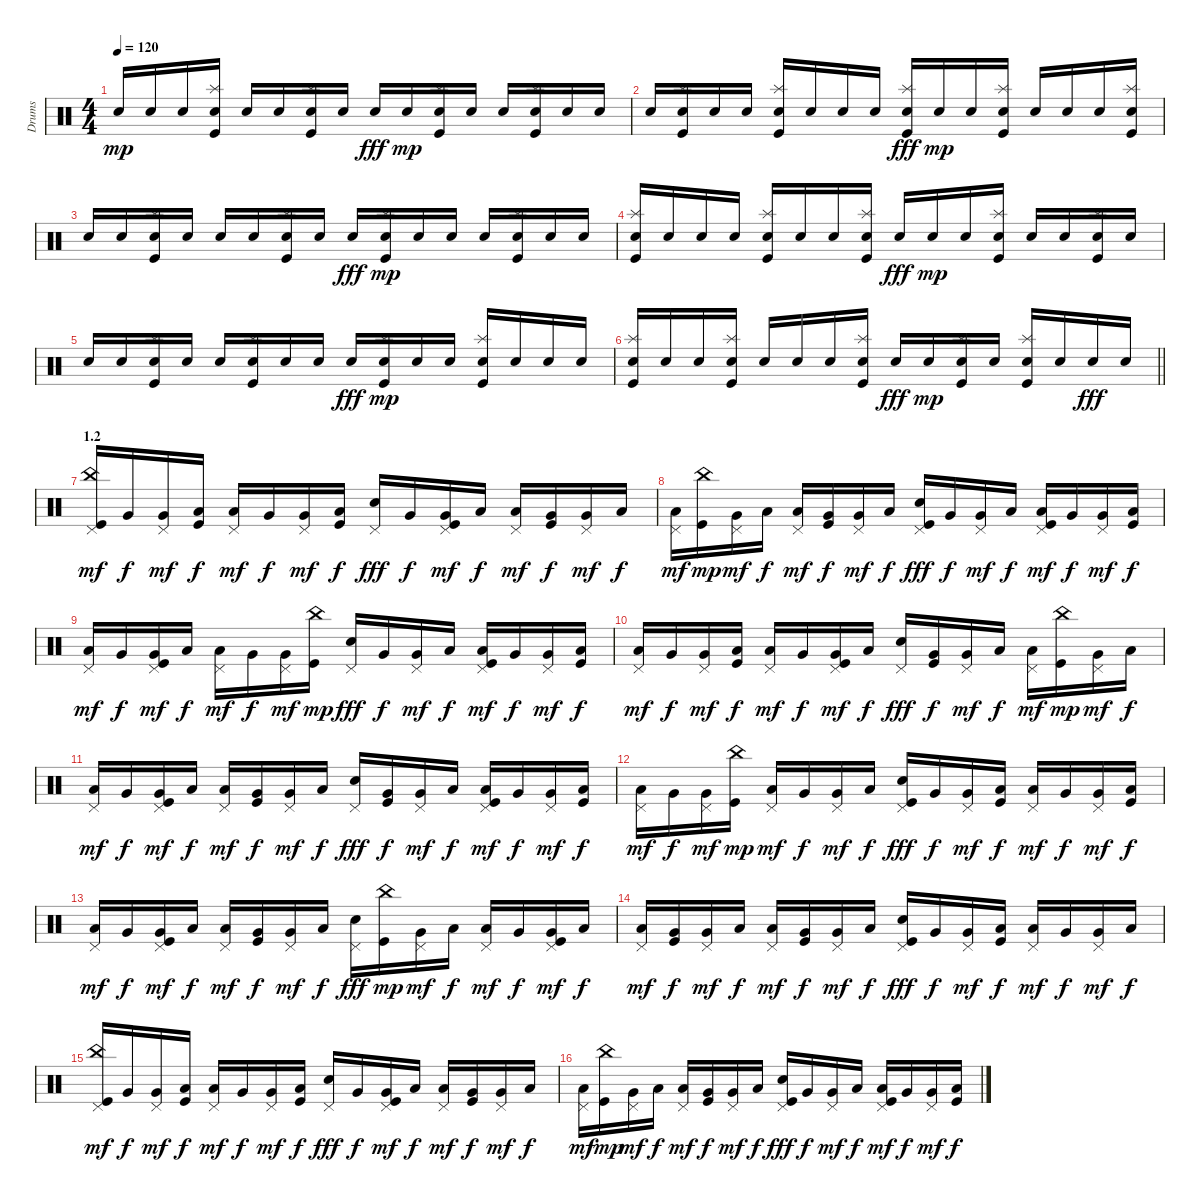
\track ("Drums" "Drums") {instrument percussion}
\staff {score}
\articulation defaults
\ts (4 4)
\tempo 120
\clef neutral
\ks c "Snare (hit) 2".16{dy mp} "Snare (hit) 2".16 "Snare (hit) 2".16
("Splash (hit)" "Snare (hit) 2" "Kick (hit)").16 "Snare (hit) 2".16 "Snare (hit) 2".16 ("Splash (hit)" "Snare (hit) 2" "Kick (hit)").16 "Snare (hit) 2".16 "Snare (hit) 2".16{dy fff} "Snare (hit) 2".16{dy mp} ("Splash (hit)" "Snare (hit) 2" "Kick (hit)").16 "Snare (hit) 2".16 "Snare (hit) 2".16 ("Splash (hit)" "Snare (hit) 2" "Kick (hit)").16 "Snare (hit) 2".16 "Snare (hit) 2".16 |
"Snare (hit) 2".16 ("Splash (hit)" "Snare (hit) 2" "Kick (hit)").16 "Snare (hit) 2".16 "Snare (hit) 2".16 ("Splash (hit)" "Snare (hit) 2" "Kick (hit)").16 "Snare (hit) 2".16 "Snare (hit) 2".16 "Snare (hit) 2".16 ("Splash (hit)" "Snare (hit) 2" "Kick (hit)").16{dy fff} "Snare (hit) 2".16{dy mp} "Snare (hit) 2".16 ("Splash (hit)" "Snare (hit) 2" "Kick (hit)").16 "Snare (hit) 2".16 "Snare (hit) 2".16 "Snare (hit) 2".16 ("Splash (hit)" "Snare (hit) 2" "Kick (hit)").16 |
"Snare (hit) 2".16 "Snare (hit) 2".16 ("Splash (hit)" "Snare (hit) 2" "Kick (hit)").16 "Snare (hit) 2".16 "Snare (hit) 2".16 "Snare (hit) 2".16 ("Splash (hit)" "Snare (hit) 2" "Kick (hit)").16 "Snare (hit) 2".16 "Snare (hit) 2".16{dy fff} ("Splash (hit)" "Snare (hit) 2" "Kick (hit)").16{dy mp} "Snare (hit) 2".16 "Snare (hit) 2".16 "Snare (hit) 2".16 ("Splash (hit)" "Snare (hit) 2" "Kick (hit)").16 "Snare (hit) 2".16 "Snare (hit) 2".16 |
("Splash (hit)" "Snare (hit) 2" "Kick (hit)").16 "Snare (hit) 2".16 "Snare (hit) 2".16 "Snare (hit) 2".16 ("Splash (hit)" "Snare (hit) 2" "Kick (hit)").16 "Snare (hit) 2".16 "Snare (hit) 2".16 ("Splash (hit)" "Snare (hit) 2" "Kick (hit)").16 "Snare (hit) 2".16{dy fff} "Snare (hit) 2".16{dy mp} "Snare (hit) 2".16 ("Splash (hit)" "Snare (hit) 2" "Kick (hit)").16 "Snare (hit) 2".16 "Snare (hit) 2".16 ("Splash (hit)" "Snare (hit) 2" "Kick (hit)").16 "Snare (hit) 2".16 |
"Snare (hit) 2".16 "Snare (hit) 2".16 ("Splash (hit)" "Snare (hit) 2" "Kick (hit)").16 "Snare (hit) 2".16 "Snare (hit) 2".16 ("Splash (hit)" "Snare (hit) 2" "Kick (hit)").16 "Snare (hit) 2".16 "Snare (hit) 2".16 "Snare (hit) 2".16{dy fff} ("Splash (hit)" "Snare (hit) 2" "Kick (hit)").16{dy mp} "Snare (hit) 2".16 "Snare (hit) 2".16 ("Splash (hit)" "Snare (hit) 2" "Kick (hit)").16 "Snare (hit) 2".16 "Snare (hit) 2".16 "Snare (hit) 2".16 |
\barLineRight lightlight
("Splash (hit)" "Snare (hit) 2" "Kick (hit)").16 "Snare (hit) 2".16 "Snare (hit) 2".16 ("Splash (hit)" "Snare (hit) 2" "Kick (hit)").16 "Snare (hit) 2".16 "Snare (hit) 2".16 "Snare (hit) 2".16 ("Splash (hit)" "Snare (hit) 2" "Kick (hit)").16 "Snare (hit) 2".16{dy fff} "Snare (hit) 2".16{dy mp} ("Splash (hit)" "Snare (hit) 2" "Kick (hit)").16 "Snare (hit) 2".16 ("Splash (hit)" "Snare (hit) 2" "Kick (hit)").16 "Snare (hit) 2".16 "Snare (hit) 2".16{dy fff} "Snare (hit) 2".16 |
\section ("" "1.2")
("China (hit)" "Pedal Hi-Hat (hit)" "Kick (hit)").16{dy mf} "Very Low Tom (hit)".16{dy f} ("Pedal Hi-Hat (hit)" "Very Low Tom (hit)").16{dy mf} ("Low Floor Tom (hit)" "Kick (hit)").16{dy f} ("Pedal Hi-Hat (hit)" "Low Tom (hit)").16{dy mf} "Very Low Tom (hit)".16{dy f} ("Pedal Hi-Hat (hit)" "Very Low Tom (hit)").16{dy mf} ("Low Floor Tom (hit)" "Kick (hit)").16{dy f} ("Pedal Hi-Hat (hit)" "Snare (hit) 2").16{dy fff} "Very Low Tom (hit)".16{dy f} ("Pedal Hi-Hat (hit)" "Very Low Tom (hit)" "Kick (hit)").16{dy mf} "Low Floor Tom (hit)".16{dy f} ("Pedal Hi-Hat (hit)" "Low Tom (hit)").16{dy mf} ("Very Low Tom (hit)" "Kick (hit)").16{dy f} ("Pedal Hi-Hat (hit)" "Very Low Tom (hit)").16{dy mf} "Low Floor Tom (hit)".16{dy f} |
("Pedal Hi-Hat (hit)" "Low Tom (hit)").16{dy mf} ("China (hit)" "Kick (hit)").16{dy mp} ("Pedal Hi-Hat (hit)" "Very Low Tom (hit)").16{dy mf} "Low Floor Tom (hit)".16{dy f} ("Pedal Hi-Hat (hit)" "Low Tom (hit)").16{dy mf} ("Very Low Tom (hit)" "Kick (hit)").16{dy f} ("Pedal Hi-Hat (hit)" "Very Low Tom (hit)").16{dy mf} "Low Floor Tom (hit)".16{dy f} ("Pedal Hi-Hat (hit)" "Snare (hit) 2" "Kick (hit)").16{dy fff} "Very Low Tom (hit)".16{dy f} ("Pedal Hi-Hat (hit)" "Very Low Tom (hit)").16{dy mf} "Low Floor Tom (hit)".16{dy f} ("Pedal Hi-Hat (hit)" "Low Tom (hit)" "Kick (hit)").16{dy mf} "Very Low Tom (hit)".16{dy f} ("Pedal Hi-Hat (hit)" "Very Low Tom (hit)").16{dy mf} ("Low Floor Tom (hit)" "Kick (hit)").16{dy f} |
("Pedal Hi-Hat (hit)" "Low Tom (hit)").16{dy mf} "Very Low Tom (hit)".16{dy f} ("Pedal Hi-Hat (hit)" "Very Low Tom (hit)" "Kick (hit)").16{dy mf} "Low Floor Tom (hit)".16{dy f} ("Pedal Hi-Hat (hit)" "Low Tom (hit)").16{dy mf} "Very Low Tom (hit)".16{dy f} ("Pedal Hi-Hat (hit)" "Very Low Tom (hit)").16{dy mf} ("China (hit)" "Kick (hit)").16{dy mp} ("Pedal Hi-Hat (hit)" "Snare (hit) 2").16{dy fff} "Very Low Tom (hit)".16{dy f} ("Pedal Hi-Hat (hit)" "Very Low Tom (hit)").16{dy mf} "Low Floor Tom (hit)".16{dy f} ("Pedal Hi-Hat (hit)" "Low Tom (hit)" "Kick (hit)").16{dy mf} "Very Low Tom (hit)".16{dy f} ("Pedal Hi-Hat (hit)" "Very Low Tom (hit)").16{dy mf} ("Low Floor Tom (hit)" "Kick (hit)").16{dy f} |
("Pedal Hi-Hat (hit)" "Low Tom (hit)").16{dy mf} "Very Low Tom (hit)".16{dy f} ("Pedal Hi-Hat (hit)" "Very Low Tom (hit)").16{dy mf} ("Low Floor Tom (hit)" "Kick (hit)").16{dy f} ("Pedal Hi-Hat (hit)" "Low Tom (hit)").16{dy mf} "Very Low Tom (hit)".16{dy f} ("Pedal Hi-Hat (hit)" "Very Low Tom (hit)" "Kick (hit)").16{dy mf} "Low Floor Tom (hit)".16{dy f} ("Pedal Hi-Hat (hit)" "Snare (hit) 2").16{dy fff} ("Very Low Tom (hit)" "Kick (hit)").16{dy f} ("Pedal Hi-Hat (hit)" "Very Low Tom (hit)").16{dy mf} "Low Floor Tom (hit)".16{dy f} ("Pedal Hi-Hat (hit)" "Low Tom (hit)").16{dy mf} ("China (hit)" "Kick (hit)").16{dy mp} ("Pedal Hi-Hat (hit)" "Very Low Tom (hit)").16{dy mf} "Low Floor Tom (hit)".16{dy f} |
("Pedal Hi-Hat (hit)" "Low Tom (hit)").16{dy mf} "Very Low Tom (hit)".16{dy f} ("Pedal Hi-Hat (hit)" "Very Low Tom (hit)" "Kick (hit)").16{dy mf} "Low Floor Tom (hit)".16{dy f} ("Pedal Hi-Hat (hit)" "Low Tom (hit)").16{dy mf} ("Very Low Tom (hit)" "Kick (hit)").16{dy f} ("Pedal Hi-Hat (hit)" "Very Low Tom (hit)").16{dy mf} "Low Floor Tom (hit)".16{dy f} ("Pedal Hi-Hat (hit)" "Snare (hit) 2").16{dy fff} ("Very Low Tom (hit)" "Kick (hit)").16{dy f} ("Pedal Hi-Hat (hit)" "Very Low Tom (hit)").16{dy mf} "Low Floor Tom (hit)".16{dy f} ("Pedal Hi-Hat (hit)" "Low Tom (hit)" "Kick (hit)").16{dy mf} "Very Low Tom (hit)".16{dy f} ("Pedal Hi-Hat (hit)" "Very Low Tom (hit)").16{dy mf} ("Low Floor Tom (hit)" "Kick (hit)").16{dy f} |
("Pedal Hi-Hat (hit)" "Low Tom (hit)").16{dy mf} "Very Low Tom (hit)".16{dy f} ("Pedal Hi-Hat (hit)" "Very Low Tom (hit)").16{dy mf} ("China (hit)" "Kick (hit)").16{dy mp} ("Pedal Hi-Hat (hit)" "Low Tom (hit)").16{dy mf} "Very Low Tom (hit)".16{dy f} ("Pedal Hi-Hat (hit)" "Very Low Tom (hit)").16{dy mf} "Low Floor Tom (hit)".16{dy f} ("Pedal Hi-Hat (hit)" "Snare (hit) 2" "Kick (hit)").16{dy fff} "Very Low Tom (hit)".16{dy f} ("Pedal Hi-Hat (hit)" "Very Low Tom (hit)").16{dy mf} ("Low Floor Tom (hit)" "Kick (hit)").16{dy f} ("Pedal Hi-Hat (hit)" "Low Tom (hit)").16{dy mf} "Very Low Tom (hit)".16{dy f} ("Pedal Hi-Hat (hit)" "Very Low Tom (hit)").16{dy mf} ("Low Floor Tom (hit)" "Kick (hit)").16{dy f} |
("Pedal Hi-Hat (hit)" "Low Tom (hit)").16{dy mf} "Very Low Tom (hit)".16{dy f} ("Pedal Hi-Hat (hit)" "Very Low Tom (hit)" "Kick (hit)").16{dy mf} "Low Floor Tom (hit)".16{dy f} ("Pedal Hi-Hat (hit)" "Low Tom (hit)").16{dy mf} ("Very Low Tom (hit)" "Kick (hit)").16{dy f} ("Pedal Hi-Hat (hit)" "Very Low Tom (hit)").16{dy mf} "Low Floor Tom (hit)".16{dy f} ("Pedal Hi-Hat (hit)" "Snare (hit) 2").16{dy fff} ("China (hit)" "Kick (hit)").16{dy mp} ("Pedal Hi-Hat (hit)" "Very Low Tom (hit)").16{dy mf} "Low Floor Tom (hit)".16{dy f} ("Pedal Hi-Hat (hit)" "Low Tom (hit)").16{dy mf} "Very Low Tom (hit)".16{dy f} ("Pedal Hi-Hat (hit)" "Very Low Tom (hit)" "Kick (hit)").16{dy mf} "Low Floor Tom (hit)".16{dy f} |
("Pedal Hi-Hat (hit)" "Low Tom (hit)").16{dy mf} ("Very Low Tom (hit)" "Kick (hit)").16{dy f} ("Pedal Hi-Hat (hit)" "Very Low Tom (hit)").16{dy mf} "Low Floor Tom (hit)".16{dy f} ("Pedal Hi-Hat (hit)" "Low Tom (hit)").16{dy mf} ("Very Low Tom (hit)" "Kick (hit)").16{dy f} ("Pedal Hi-Hat (hit)" "Very Low Tom (hit)").16{dy mf} "Low Floor Tom (hit)".16{dy f} ("Pedal Hi-Hat (hit)" "Snare (hit) 2" "Kick (hit)").16{dy fff} "Very Low Tom (hit)".16{dy f} ("Pedal Hi-Hat (hit)" "Very Low Tom (hit)").16{dy mf} ("Low Floor Tom (hit)" "Kick (hit)").16{dy f} ("Pedal Hi-Hat (hit)" "Low Tom (hit)").16{dy mf} "Very Low Tom (hit)".16{dy f} ("Pedal Hi-Hat (hit)" "Very Low Tom (hit)").16{dy mf} "Low Floor Tom (hit)".16{dy f} |
("China (hit)" "Pedal Hi-Hat (hit)" "Kick (hit)").16{dy mf} "Very Low Tom (hit)".16{dy f} ("Pedal Hi-Hat (hit)" "Very Low Tom (hit)").16{dy mf} ("Low Floor Tom (hit)" "Kick (hit)").16{dy f} ("Pedal Hi-Hat (hit)" "Low Tom (hit)").16{dy mf} "Very Low Tom (hit)".16{dy f} ("Pedal Hi-Hat (hit)" "Very Low Tom (hit)").16{dy mf} ("Low Floor Tom (hit)" "Kick (hit)").16{dy f} ("Pedal Hi-Hat (hit)" "Snare (hit) 2").16{dy fff} "Very Low Tom (hit)".16{dy f} ("Pedal Hi-Hat (hit)" "Very Low Tom (hit)" "Kick (hit)").16{dy mf} "Low Floor Tom (hit)".16{dy f} ("Pedal Hi-Hat (hit)" "Low Tom (hit)").16{dy mf} ("Very Low Tom (hit)" "Kick (hit)").16{dy f} ("Pedal Hi-Hat (hit)" "Very Low Tom (hit)").16{dy mf} "Low Floor Tom (hit)".16{dy f} |
("Pedal Hi-Hat (hit)" "Low Tom (hit)").16{dy mf} ("China (hit)" "Kick (hit)").16{dy mp} ("Pedal Hi-Hat (hit)" "Very Low Tom (hit)").16{dy mf} "Low Floor Tom (hit)".16{dy f} ("Pedal Hi-Hat (hit)" "Low Tom (hit)").16{dy mf} ("Very Low Tom (hit)" "Kick (hit)").16{dy f} ("Pedal Hi-Hat (hit)" "Very Low Tom (hit)").16{dy mf} "Low Floor Tom (hit)".16{dy f} ("Pedal Hi-Hat (hit)" "Snare (hit) 2" "Kick (hit)").16{dy fff} "Very Low Tom (hit)".16{dy f} ("Pedal Hi-Hat (hit)" "Very Low Tom (hit)").16{dy mf} "Low Floor Tom (hit)".16{dy f} ("Pedal Hi-Hat (hit)" "Low Tom (hit)" "Kick (hit)").16{dy mf} "Very Low Tom (hit)".16{dy f} ("Pedal Hi-Hat (hit)" "Very Low Tom (hit)").16{dy mf} ("Low Floor Tom (hit)" "Kick (hit)").16{dy f}
